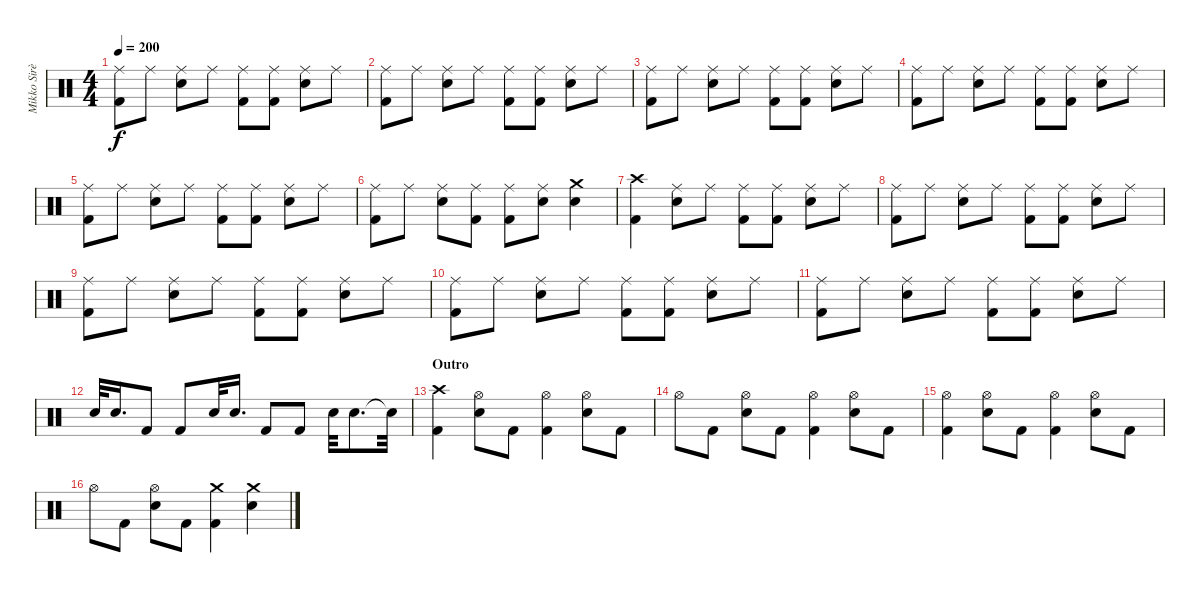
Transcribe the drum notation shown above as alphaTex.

\track ("Mikko Sirèn" "Mikko Sirè") {instrument percussion}
\staff {score}
\articulation defaults
\ts (4 4)
\tempo 200
\clef neutral
\ks c
("Ride (middle)" "Kick (hit) 2").8{dy f} "Ride (middle)".8 ("Ride (middle)" "Electric Snare (hit)").8 "Ride (middle)".8 ("Ride (middle)" "Kick (hit) 2").8 ("Ride (middle)" "Kick (hit) 2").8 ("Ride (middle)" "Electric Snare (hit)").8 "Ride (middle)".8 |
("Ride (middle)" "Kick (hit) 2").8 "Ride (middle)".8 ("Ride (middle)" "Electric Snare (hit)").8 "Ride (middle)".8 ("Ride (middle)" "Kick (hit) 2").8 ("Ride (middle)" "Kick (hit) 2").8 ("Ride (middle)" "Electric Snare (hit)").8 "Ride (middle)".8 |
("Ride (middle)" "Kick (hit) 2").8 "Ride (middle)".8 ("Ride (middle)" "Electric Snare (hit)").8 "Ride (middle)".8 ("Ride (middle)" "Kick (hit) 2").8 ("Ride (middle)" "Kick (hit) 2").8 ("Ride (middle)" "Electric Snare (hit)").8 "Ride (middle)".8 |
("Ride (middle)" "Kick (hit) 2").8 "Ride (middle)".8 ("Ride (middle)" "Electric Snare (hit)").8 "Ride (middle)".8 ("Ride (middle)" "Kick (hit) 2").8 ("Ride (middle)" "Kick (hit) 2").8 ("Ride (middle)" "Electric Snare (hit)").8 "Ride (middle)".8 |
("Ride (middle)" "Kick (hit) 2").8 "Ride (middle)".8 ("Ride (middle)" "Electric Snare (hit)").8 "Ride (middle)".8 ("Ride (middle)" "Kick (hit) 2").8 ("Ride (middle)" "Kick (hit) 2").8 ("Ride (middle)" "Electric Snare (hit)").8 "Ride (middle)".8 |
("Ride (middle)" "Kick (hit) 2").8 "Ride (middle)".8 ("Ride (middle)" "Electric Snare (hit)").8 ("Ride (middle)" "Kick (hit) 2").8 ("Ride (middle)" "Kick (hit) 2").8 ("Ride (middle)" "Electric Snare (hit)").8 ("Crash medium (hit)" "Electric Snare (hit)").4 |
("Crash high (hit)" "Kick (hit) 2").4 ("Ride (middle)" "Electric Snare (hit)").8 "Ride (middle)".8 ("Ride (middle)" "Kick (hit) 2").8 ("Ride (middle)" "Kick (hit) 2").8 ("Ride (middle)" "Electric Snare (hit)").8 "Ride (middle)".8 |
("Ride (middle)" "Kick (hit) 2").8 "Ride (middle)".8 ("Ride (middle)" "Electric Snare (hit)").8 "Ride (middle)".8 ("Ride (middle)" "Kick (hit) 2").8 ("Ride (middle)" "Kick (hit) 2").8 ("Ride (middle)" "Electric Snare (hit)").8 "Ride (middle)".8 |
("Ride (middle)" "Kick (hit) 2").8 "Ride (middle)".8 ("Ride (middle)" "Electric Snare (hit)").8 "Ride (middle)".8 ("Ride (middle)" "Kick (hit) 2").8 ("Ride (middle)" "Kick (hit) 2").8 ("Ride (middle)" "Electric Snare (hit)").8 "Ride (middle)".8 |
("Ride (middle)" "Kick (hit) 2").8 "Ride (middle)".8 ("Ride (middle)" "Electric Snare (hit)").8 "Ride (middle)".8 ("Ride (middle)" "Kick (hit) 2").8 ("Ride (middle)" "Kick (hit) 2").8 ("Ride (middle)" "Electric Snare (hit)").8 "Ride (middle)".8 |
("Ride (middle)" "Kick (hit) 2").8 "Ride (middle)".8 ("Ride (middle)" "Electric Snare (hit)").8 "Ride (middle)".8 ("Ride (middle)" "Kick (hit) 2").8 ("Ride (middle)" "Kick (hit) 2").8 ("Ride (middle)" "Electric Snare (hit)").8 "Ride (middle)".8 |
"Electric Snare (hit)".32 "Electric Snare (hit)".16{d} "Kick (hit) 2".8 "Kick (hit) 2".8 "Electric Snare (hit)".32 "Electric Snare (hit)".16{d} "Kick (hit) 2".8 "Kick (hit) 2".8 "Electric Snare (hit)".32 "Electric Snare (hit)".8{d} "Electric Snare (hit)"{t}.32 |
\section ("" "Outro")
("Crash high (hit)" "Kick (hit) 2").4 ("Hi-Hat (open)" "Electric Snare (hit)").8 "Kick (hit) 2".8 ("Hi-Hat (open)" "Kick (hit) 2").4 ("Hi-Hat (open)" "Electric Snare (hit)").8 "Kick (hit) 2".8 |
"Hi-Hat (open)".8 "Kick (hit) 2".8 ("Hi-Hat (open)" "Electric Snare (hit)").8 "Kick (hit) 2".8 ("Hi-Hat (open)" "Kick (hit) 2").4 ("Hi-Hat (open)" "Electric Snare (hit)").8 "Kick (hit) 2".8 |
("Hi-Hat (open)" "Kick (hit) 2").4 ("Hi-Hat (open)" "Electric Snare (hit)").8 "Kick (hit) 2".8 ("Hi-Hat (open)" "Kick (hit) 2").4 ("Hi-Hat (open)" "Electric Snare (hit)").8 "Kick (hit) 2".8 |
"Hi-Hat (open)".8 "Kick (hit) 2".8 ("Hi-Hat (open)" "Electric Snare (hit)").8 "Kick (hit) 2".8 ("Crash medium (hit)" "Kick (hit) 2").4 ("Crash medium (hit)" "Electric Snare (hit)").4
